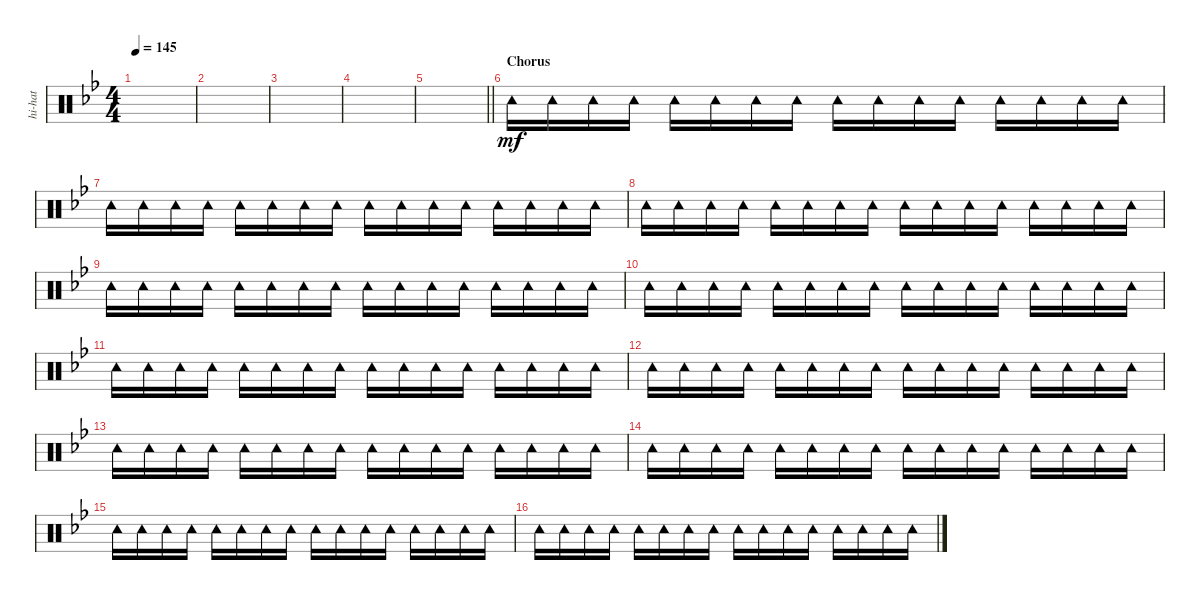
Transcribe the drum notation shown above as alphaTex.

\track ("hi-hat" "hi-hat") {instrument percussion}
\staff {score}
\articulation defaults
\ts (4 4)
\tempo 145
\clef neutral
\ks bb
|
|
|
|
\barLineRight lightlight
|
\section ("" "Chorus")
"Tambourine (hit)".16{dy mf} "Tambourine (hit)".16 "Tambourine (hit)".16 "Tambourine (hit)".16 "Tambourine (hit)".16 "Tambourine (hit)".16 "Tambourine (hit)".16 "Tambourine (hit)".16 "Tambourine (hit)".16 "Tambourine (hit)".16 "Tambourine (hit)".16 "Tambourine (hit)".16 "Tambourine (hit)".16 "Tambourine (hit)".16 "Tambourine (hit)".16 "Tambourine (hit)".16 |
"Tambourine (hit)".16 "Tambourine (hit)".16 "Tambourine (hit)".16 "Tambourine (hit)".16 "Tambourine (hit)".16 "Tambourine (hit)".16 "Tambourine (hit)".16 "Tambourine (hit)".16 "Tambourine (hit)".16 "Tambourine (hit)".16 "Tambourine (hit)".16 "Tambourine (hit)".16 "Tambourine (hit)".16 "Tambourine (hit)".16 "Tambourine (hit)".16 "Tambourine (hit)".16 |
"Tambourine (hit)".16 "Tambourine (hit)".16 "Tambourine (hit)".16 "Tambourine (hit)".16 "Tambourine (hit)".16 "Tambourine (hit)".16 "Tambourine (hit)".16 "Tambourine (hit)".16 "Tambourine (hit)".16 "Tambourine (hit)".16 "Tambourine (hit)".16 "Tambourine (hit)".16 "Tambourine (hit)".16 "Tambourine (hit)".16 "Tambourine (hit)".16 "Tambourine (hit)".16 |
"Tambourine (hit)".16 "Tambourine (hit)".16 "Tambourine (hit)".16 "Tambourine (hit)".16 "Tambourine (hit)".16 "Tambourine (hit)".16 "Tambourine (hit)".16 "Tambourine (hit)".16 "Tambourine (hit)".16 "Tambourine (hit)".16 "Tambourine (hit)".16 "Tambourine (hit)".16 "Tambourine (hit)".16 "Tambourine (hit)".16 "Tambourine (hit)".16 "Tambourine (hit)".16 |
"Tambourine (hit)".16 "Tambourine (hit)".16 "Tambourine (hit)".16 "Tambourine (hit)".16 "Tambourine (hit)".16 "Tambourine (hit)".16 "Tambourine (hit)".16 "Tambourine (hit)".16 "Tambourine (hit)".16 "Tambourine (hit)".16 "Tambourine (hit)".16 "Tambourine (hit)".16 "Tambourine (hit)".16 "Tambourine (hit)".16 "Tambourine (hit)".16 "Tambourine (hit)".16 |
"Tambourine (hit)".16 "Tambourine (hit)".16 "Tambourine (hit)".16 "Tambourine (hit)".16 "Tambourine (hit)".16 "Tambourine (hit)".16 "Tambourine (hit)".16 "Tambourine (hit)".16 "Tambourine (hit)".16 "Tambourine (hit)".16 "Tambourine (hit)".16 "Tambourine (hit)".16 "Tambourine (hit)".16 "Tambourine (hit)".16 "Tambourine (hit)".16 "Tambourine (hit)".16 |
"Tambourine (hit)".16 "Tambourine (hit)".16 "Tambourine (hit)".16 "Tambourine (hit)".16 "Tambourine (hit)".16 "Tambourine (hit)".16 "Tambourine (hit)".16 "Tambourine (hit)".16 "Tambourine (hit)".16 "Tambourine (hit)".16 "Tambourine (hit)".16 "Tambourine (hit)".16 "Tambourine (hit)".16 "Tambourine (hit)".16 "Tambourine (hit)".16 "Tambourine (hit)".16 |
"Tambourine (hit)".16 "Tambourine (hit)".16 "Tambourine (hit)".16 "Tambourine (hit)".16 "Tambourine (hit)".16 "Tambourine (hit)".16 "Tambourine (hit)".16 "Tambourine (hit)".16 "Tambourine (hit)".16 "Tambourine (hit)".16 "Tambourine (hit)".16 "Tambourine (hit)".16 "Tambourine (hit)".16 "Tambourine (hit)".16 "Tambourine (hit)".16 "Tambourine (hit)".16 |
"Tambourine (hit)".16 "Tambourine (hit)".16 "Tambourine (hit)".16 "Tambourine (hit)".16 "Tambourine (hit)".16 "Tambourine (hit)".16 "Tambourine (hit)".16 "Tambourine (hit)".16 "Tambourine (hit)".16 "Tambourine (hit)".16 "Tambourine (hit)".16 "Tambourine (hit)".16 "Tambourine (hit)".16 "Tambourine (hit)".16 "Tambourine (hit)".16 "Tambourine (hit)".16 |
"Tambourine (hit)".16 "Tambourine (hit)".16 "Tambourine (hit)".16 "Tambourine (hit)".16 "Tambourine (hit)".16 "Tambourine (hit)".16 "Tambourine (hit)".16 "Tambourine (hit)".16 "Tambourine (hit)".16 "Tambourine (hit)".16 "Tambourine (hit)".16 "Tambourine (hit)".16 "Tambourine (hit)".16 "Tambourine (hit)".16 "Tambourine (hit)".16 "Tambourine (hit)".16 |
"Tambourine (hit)".16 "Tambourine (hit)".16 "Tambourine (hit)".16 "Tambourine (hit)".16 "Tambourine (hit)".16 "Tambourine (hit)".16 "Tambourine (hit)".16 "Tambourine (hit)".16 "Tambourine (hit)".16 "Tambourine (hit)".16 "Tambourine (hit)".16 "Tambourine (hit)".16 "Tambourine (hit)".16 "Tambourine (hit)".16 "Tambourine (hit)".16 "Tambourine (hit)".16
